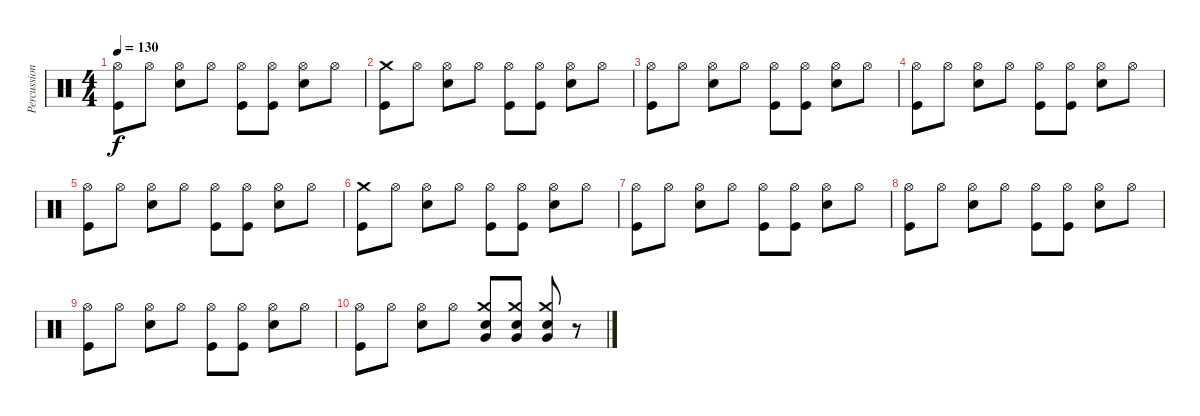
\track ("Percussion" "Percussion") {instrument percussion}
\staff {score}
\articulation defaults
\ts (4 4)
\tempo 130
\clef neutral
\ks c
("Hi-Hat (open)" "Kick (hit)").8{dy f} "Hi-Hat (open)".8 ("Hi-Hat (open)" "Snare (hit) 2").8 "Hi-Hat (open)".8 ("Hi-Hat (open)" "Kick (hit)").8 ("Hi-Hat (open)" "Kick (hit)").8 ("Hi-Hat (open)" "Snare (hit) 2").8 "Hi-Hat (open)".8 |
("Crash medium (hit)" "Kick (hit)").8 "Hi-Hat (open)".8 ("Hi-Hat (open)" "Snare (hit) 2").8 "Hi-Hat (open)".8 ("Hi-Hat (open)" "Kick (hit)").8 ("Hi-Hat (open)" "Kick (hit)").8 ("Hi-Hat (open)" "Snare (hit) 2").8 "Hi-Hat (open)".8 |
("Hi-Hat (open)" "Kick (hit)").8 "Hi-Hat (open)".8 ("Hi-Hat (open)" "Snare (hit) 2").8 "Hi-Hat (open)".8 ("Hi-Hat (open)" "Kick (hit)").8 ("Hi-Hat (open)" "Kick (hit)").8 ("Hi-Hat (open)" "Snare (hit) 2").8 "Hi-Hat (open)".8 |
("Hi-Hat (open)" "Kick (hit)").8 "Hi-Hat (open)".8 ("Hi-Hat (open)" "Snare (hit) 2").8 "Hi-Hat (open)".8 ("Hi-Hat (open)" "Kick (hit)").8 ("Hi-Hat (open)" "Kick (hit)").8 ("Hi-Hat (open)" "Snare (hit) 2").8 "Hi-Hat (open)".8 |
("Hi-Hat (open)" "Kick (hit)").8 "Hi-Hat (open)".8 ("Hi-Hat (open)" "Snare (hit) 2").8 "Hi-Hat (open)".8 ("Hi-Hat (open)" "Kick (hit)").8 ("Hi-Hat (open)" "Kick (hit)").8 ("Hi-Hat (open)" "Snare (hit) 2").8 "Hi-Hat (open)".8 |
("Crash medium (hit)" "Kick (hit)").8 "Hi-Hat (open)".8 ("Hi-Hat (open)" "Snare (hit) 2").8 "Hi-Hat (open)".8 ("Hi-Hat (open)" "Kick (hit)").8 ("Hi-Hat (open)" "Kick (hit)").8 ("Hi-Hat (open)" "Snare (hit) 2").8 "Hi-Hat (open)".8 |
("Hi-Hat (open)" "Kick (hit)").8 "Hi-Hat (open)".8 ("Hi-Hat (open)" "Snare (hit) 2").8 "Hi-Hat (open)".8 ("Hi-Hat (open)" "Kick (hit)").8 ("Hi-Hat (open)" "Kick (hit)").8 ("Hi-Hat (open)" "Snare (hit) 2").8 "Hi-Hat (open)".8 |
("Hi-Hat (open)" "Kick (hit)").8 "Hi-Hat (open)".8 ("Hi-Hat (open)" "Snare (hit) 2").8 "Hi-Hat (open)".8 ("Hi-Hat (open)" "Kick (hit)").8 ("Hi-Hat (open)" "Kick (hit)").8 ("Hi-Hat (open)" "Snare (hit) 2").8 "Hi-Hat (open)".8 |
("Hi-Hat (open)" "Kick (hit)").8 "Hi-Hat (open)".8 ("Hi-Hat (open)" "Snare (hit) 2").8 "Hi-Hat (open)".8 ("Hi-Hat (open)" "Kick (hit)").8 ("Hi-Hat (open)" "Kick (hit)").8 ("Hi-Hat (open)" "Snare (hit) 2").8 "Hi-Hat (open)".8 |
("Hi-Hat (open)" "Kick (hit)").8 "Hi-Hat (open)".8 ("Hi-Hat (open)" "Snare (hit) 2").8 "Hi-Hat (open)".8 ("Snare (hit) 2" "Very Low Tom (hit)" "Crash medium (hit)").8 ("Snare (hit) 2" "Very Low Tom (hit)" "Crash medium (hit)").8 ("Snare (hit) 2" "Very Low Tom (hit)" "Crash medium (hit)").8 r.8
